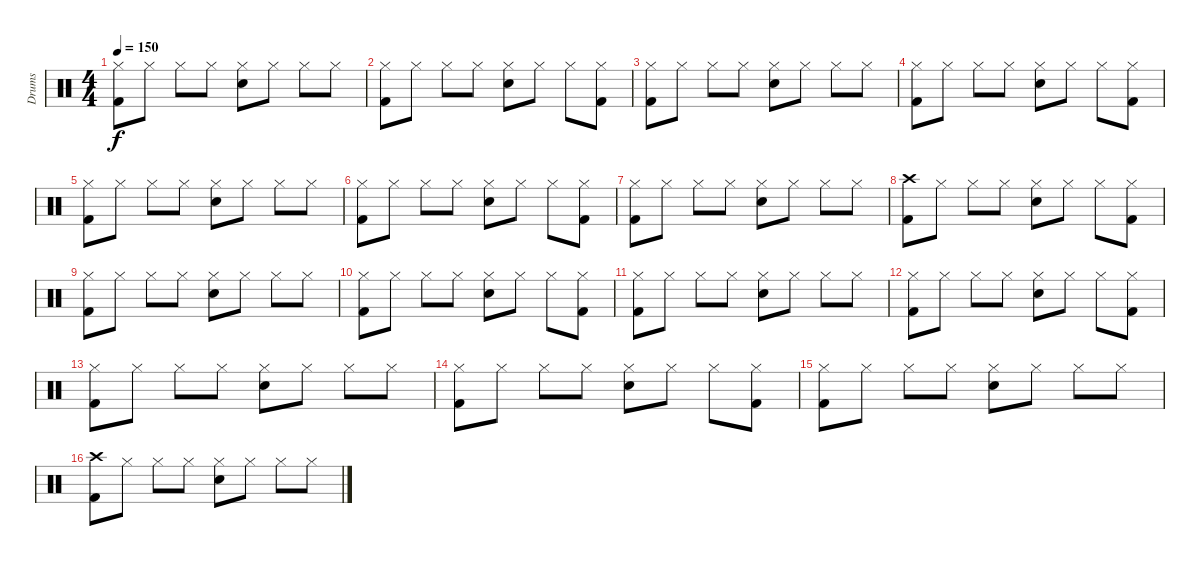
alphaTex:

\track ("Drums" "Drums") {instrument percussion}
\staff {score}
\articulation defaults
\ts (4 4)
\tempo 150
\clef neutral
\ks c
("Hi-Hat (closed)" "Kick (hit) 2").8{dy f} "Hi-Hat (closed)".8 "Hi-Hat (closed)".8 "Hi-Hat (closed)".8 ("Hi-Hat (closed)" "Electric Snare (hit)").8 "Hi-Hat (closed)".8 "Hi-Hat (closed)".8 "Hi-Hat (closed)".8 |
("Hi-Hat (closed)" "Kick (hit) 2").8 "Hi-Hat (closed)".8 "Hi-Hat (closed)".8 "Hi-Hat (closed)".8 ("Hi-Hat (closed)" "Electric Snare (hit)").8 "Hi-Hat (closed)".8 "Hi-Hat (closed)".8 ("Hi-Hat (closed)" "Kick (hit) 2").8 |
("Hi-Hat (closed)" "Kick (hit) 2").8 "Hi-Hat (closed)".8 "Hi-Hat (closed)".8 "Hi-Hat (closed)".8 ("Hi-Hat (closed)" "Electric Snare (hit)").8 "Hi-Hat (closed)".8 "Hi-Hat (closed)".8 "Hi-Hat (closed)".8 |
("Hi-Hat (closed)" "Kick (hit) 2").8{volume 10} "Hi-Hat (closed)".8 "Hi-Hat (closed)".8 "Hi-Hat (closed)".8 ("Hi-Hat (closed)" "Electric Snare (hit)").8 "Hi-Hat (closed)".8 "Hi-Hat (closed)".8 ("Hi-Hat (closed)" "Kick (hit) 2").8 |
("Hi-Hat (closed)" "Kick (hit) 2").8 "Hi-Hat (closed)".8 "Hi-Hat (closed)".8 "Hi-Hat (closed)".8 ("Hi-Hat (closed)" "Electric Snare (hit)").8 "Hi-Hat (closed)".8 "Hi-Hat (closed)".8 "Hi-Hat (closed)".8 |
("Hi-Hat (closed)" "Kick (hit) 2").8 "Hi-Hat (closed)".8 "Hi-Hat (closed)".8 "Hi-Hat (closed)".8 ("Hi-Hat (closed)" "Electric Snare (hit)").8 "Hi-Hat (closed)".8 "Hi-Hat (closed)".8 ("Hi-Hat (closed)" "Kick (hit) 2").8 |
("Hi-Hat (closed)" "Kick (hit) 2").8 "Hi-Hat (closed)".8 "Hi-Hat (closed)".8 "Hi-Hat (closed)".8 ("Hi-Hat (closed)" "Electric Snare (hit)").8 "Hi-Hat (closed)".8 "Hi-Hat (closed)".8 "Hi-Hat (closed)".8 |
("Crash high (hit)" "Kick (hit) 2").8{volume 8} "Hi-Hat (closed)".8 "Hi-Hat (closed)".8 "Hi-Hat (closed)".8 ("Hi-Hat (closed)" "Electric Snare (hit)").8 "Hi-Hat (closed)".8 "Hi-Hat (closed)".8 ("Hi-Hat (closed)" "Kick (hit) 2").8 |
("Hi-Hat (closed)" "Kick (hit) 2").8 "Hi-Hat (closed)".8 "Hi-Hat (closed)".8 "Hi-Hat (closed)".8 ("Hi-Hat (closed)" "Electric Snare (hit)").8 "Hi-Hat (closed)".8 "Hi-Hat (closed)".8 "Hi-Hat (closed)".8 |
("Hi-Hat (closed)" "Kick (hit) 2").8 "Hi-Hat (closed)".8 "Hi-Hat (closed)".8 "Hi-Hat (closed)".8 ("Hi-Hat (closed)" "Electric Snare (hit)").8 "Hi-Hat (closed)".8 "Hi-Hat (closed)".8 ("Hi-Hat (closed)" "Kick (hit) 2").8 |
("Hi-Hat (closed)" "Kick (hit) 2").8 "Hi-Hat (closed)".8 "Hi-Hat (closed)".8 "Hi-Hat (closed)".8 ("Hi-Hat (closed)" "Electric Snare (hit)").8 "Hi-Hat (closed)".8 "Hi-Hat (closed)".8 "Hi-Hat (closed)".8 |
("Hi-Hat (closed)" "Kick (hit) 2").8{volume 7} "Hi-Hat (closed)".8 "Hi-Hat (closed)".8 "Hi-Hat (closed)".8 ("Hi-Hat (closed)" "Electric Snare (hit)").8 "Hi-Hat (closed)".8 "Hi-Hat (closed)".8 ("Hi-Hat (closed)" "Kick (hit) 2").8 |
("Hi-Hat (closed)" "Kick (hit) 2").8 "Hi-Hat (closed)".8 "Hi-Hat (closed)".8 "Hi-Hat (closed)".8 ("Hi-Hat (closed)" "Electric Snare (hit)").8 "Hi-Hat (closed)".8 "Hi-Hat (closed)".8 "Hi-Hat (closed)".8 |
("Hi-Hat (closed)" "Kick (hit) 2").8 "Hi-Hat (closed)".8 "Hi-Hat (closed)".8 "Hi-Hat (closed)".8 ("Hi-Hat (closed)" "Electric Snare (hit)").8 "Hi-Hat (closed)".8 "Hi-Hat (closed)".8 ("Hi-Hat (closed)" "Kick (hit) 2").8 |
("Hi-Hat (closed)" "Kick (hit) 2").8 "Hi-Hat (closed)".8 "Hi-Hat (closed)".8 "Hi-Hat (closed)".8 ("Hi-Hat (closed)" "Electric Snare (hit)").8 "Hi-Hat (closed)".8 "Hi-Hat (closed)".8 "Hi-Hat (closed)".8 |
("Crash high (hit)" "Kick (hit) 2").8{volume 6} "Hi-Hat (closed)".8 "Hi-Hat (closed)".8 "Hi-Hat (closed)".8 ("Hi-Hat (closed)" "Electric Snare (hit)").8 "Hi-Hat (closed)".8 "Hi-Hat (closed)".8 "Hi-Hat (closed)".8
